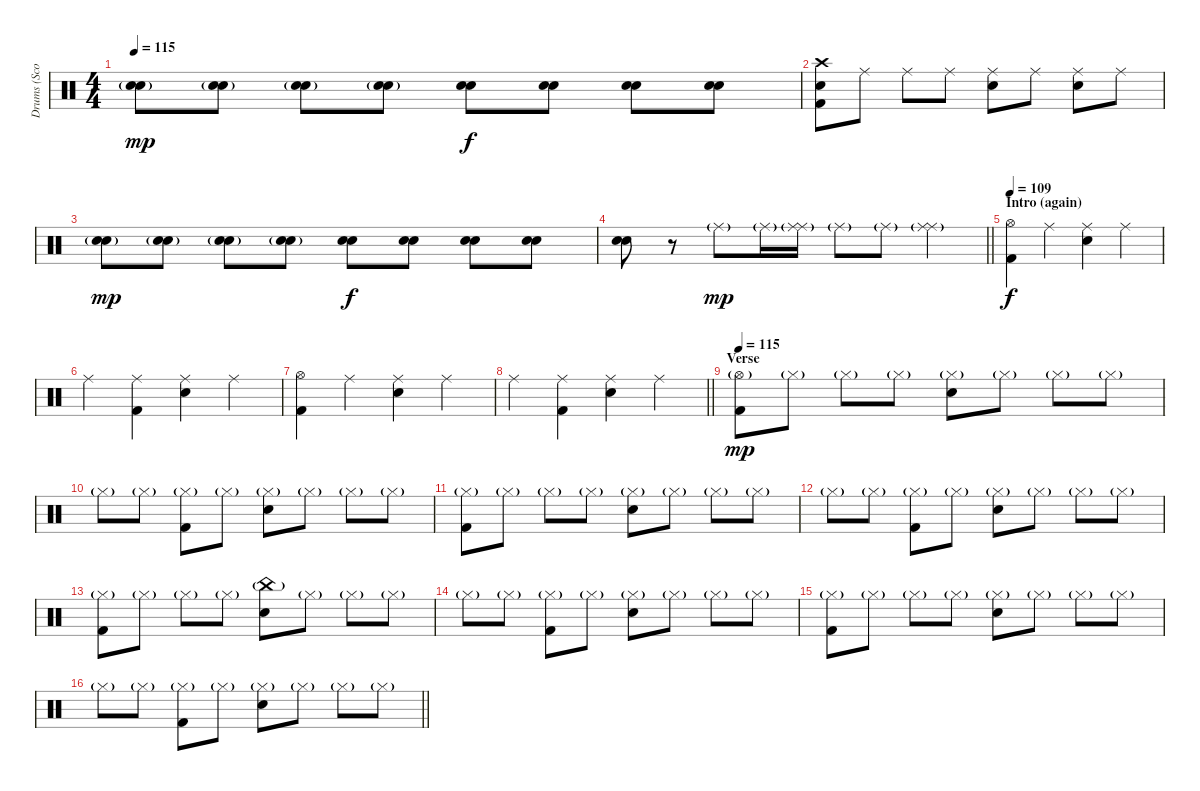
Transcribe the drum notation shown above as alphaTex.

\track ("Drums (Scott Raynor)" "Drums (Sco") {instrument percussion}
\staff {score}
\articulation defaults
\ts (4 4)
\tempo 115
\clef neutral
\ks c
("Snare (hit) 2"{g} "Snare (hit) 2"{g}).8{dy mp} ("Snare (hit) 2"{g} "Snare (hit) 2"{g}).8 ("Snare (hit) 2" "Snare (hit) 2"{g}).8 ("Snare (hit) 2" "Snare (hit) 2"{g}).8 ("Snare (hit) 2" "Snare (hit) 2").8{dy f} ("Snare (hit) 2" "Snare (hit) 2").8 ("Snare (hit) 2" "Snare (hit) 2").8 ("Snare (hit) 2" "Snare (hit) 2").8 |
("Crash high (hit)" "Snare (hit) 2" "Kick (hit) 2").8 "Ride (middle)".8 "Ride (middle)".8 "Ride (middle)".8 ("Ride (middle)" "Snare (hit) 2").8 "Ride (middle)".8 ("Ride (middle)" "Snare (hit) 2").8 "Ride (middle)".8 |
("Snare (hit) 2"{g} "Snare (hit) 2"{g}).8{dy mp} ("Snare (hit) 2"{g} "Snare (hit) 2"{g}).8 ("Snare (hit) 2" "Snare (hit) 2"{g}).8 ("Snare (hit) 2" "Snare (hit) 2"{g}).8 ("Snare (hit) 2" "Snare (hit) 2").8{dy f} ("Snare (hit) 2" "Snare (hit) 2").8 ("Snare (hit) 2" "Snare (hit) 2").8 ("Snare (hit) 2" "Snare (hit) 2").8 |
\barLineRight lightlight
("Snare (hit) 2" "Snare (hit) 2").8 r.8 "Ride (middle)"{g}.8{dy mp} "Ride (middle)"{g}.16 ("Ride (middle)"{g} "Ride (middle)").16 "Ride (middle)"{g}.8 "Ride (middle)"{g}.8 ("Ride (middle)"{g} "Ride (middle)").4 |
\section ("" "Intro (again)")
\tempo 109
("Hi-Hat (open)" "Kick (hit) 2").4{dy f} "Ride (middle)".4 ("Ride (middle)" "Snare (hit) 2").4 "Ride (middle)".4 |
"Ride (middle)".4 ("Ride (middle)" "Kick (hit) 2").4 ("Ride (middle)" "Snare (hit) 2").4 "Ride (middle)".4 |
("Hi-Hat (open)" "Kick (hit) 2").4 "Ride (middle)".4 ("Ride (middle)" "Snare (hit) 2").4 "Ride (middle)".4 |
\barLineRight lightlight "Ride (middle)".4
("Ride (middle)" "Kick (hit) 2").4 ("Ride (middle)" "Snare (hit) 2").4 "Ride (middle)".4 |
\section ("" "Verse")
\tempo 115
("Hi-Hat (open)"{g} "Kick (hit) 2").8{dy mp} "Hi-Hat (closed)"{g}.8 "Hi-Hat (closed)"{g}.8 "Hi-Hat (closed)"{g}.8 ("Hi-Hat (closed)"{g} "Snare (hit) 2").8 "Hi-Hat (closed)"{g}.8 "Hi-Hat (closed)"{g}.8 "Hi-Hat (closed)"{g}.8 |
"Hi-Hat (closed)"{g}.8 "Hi-Hat (closed)"{g}.8 ("Hi-Hat (closed)"{g} "Kick (hit) 2").8 "Hi-Hat (closed)"{g}.8 ("Hi-Hat (closed)"{g} "Snare (hit) 2").8 "Hi-Hat (closed)"{g}.8 "Hi-Hat (closed)"{g}.8 "Hi-Hat (closed)"{g}.8 |
("Hi-Hat (closed)"{g} "Kick (hit) 2").8 "Hi-Hat (closed)"{g}.8 "Hi-Hat (closed)"{g}.8 "Hi-Hat (closed)"{g}.8 ("Hi-Hat (closed)"{g} "Snare (hit) 2").8 "Hi-Hat (closed)"{g}.8 "Hi-Hat (closed)"{g}.8 "Hi-Hat (closed)"{g}.8 |
"Hi-Hat (closed)"{g}.8 "Hi-Hat (closed)"{g}.8 ("Hi-Hat (closed)"{g} "Kick (hit) 2").8 "Hi-Hat (closed)"{g}.8 ("Hi-Hat (closed)"{g} "Snare (hit) 2").8 "Hi-Hat (closed)"{g}.8 "Hi-Hat (closed)"{g}.8 "Hi-Hat (closed)"{g}.8 |
("Hi-Hat (closed)"{g} "Kick (hit) 2").8 "Hi-Hat (closed)"{g}.8 "Hi-Hat (closed)"{g}.8 "Hi-Hat (closed)"{g}.8 ("China (hit)"{g} "Snare (hit) 2").8 "Hi-Hat (closed)"{g}.8 "Hi-Hat (closed)"{g}.8 "Hi-Hat (closed)"{g}.8 |
"Hi-Hat (closed)"{g}.8 "Hi-Hat (closed)"{g}.8 ("Hi-Hat (closed)"{g} "Kick (hit) 2").8 "Hi-Hat (closed)"{g}.8 ("Hi-Hat (closed)"{g} "Snare (hit) 2").8 "Hi-Hat (closed)"{g}.8 "Hi-Hat (closed)"{g}.8 "Hi-Hat (closed)"{g}.8 |
("Hi-Hat (closed)"{g} "Kick (hit) 2").8 "Hi-Hat (closed)"{g}.8 "Hi-Hat (closed)"{g}.8 "Hi-Hat (closed)"{g}.8 ("Hi-Hat (closed)"{g} "Snare (hit) 2").8 "Hi-Hat (closed)"{g}.8 "Hi-Hat (closed)"{g}.8 "Hi-Hat (closed)"{g}.8 |
\barLineRight lightlight "Hi-Hat (closed)"{g}.8 "Hi-Hat (closed)"{g}.8
("Hi-Hat (closed)"{g} "Kick (hit) 2").8 "Hi-Hat (closed)"{g}.8 ("Hi-Hat (closed)"{g} "Snare (hit) 2").8 "Hi-Hat (closed)"{g}.8 "Hi-Hat (closed)"{g}.8 "Hi-Hat (closed)"{g}.8
